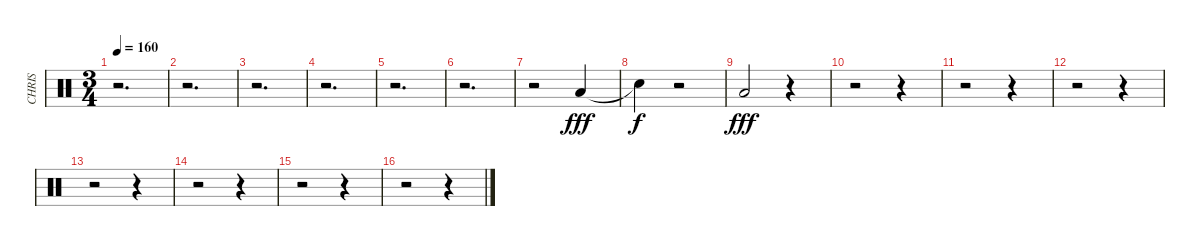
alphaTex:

\track ("CHRIS" "CHRIS") {instrument percussion}
\staff {score}
\articulation defaults
\ts (3 4)
\tempo 160
\clef neutral
\ks c
r.2{d dy fff} |
r.2{d} |
r.2{d} |
r.2{d} |
r.2{d} |
r.2{d} |
r.2 "Low Floor Tom (hit)".4 |
"Snare (hit)"{t}.4{dy f} r.2 |
"Low Floor Tom (hit)".2{dy fff} r.4 |
r.2 r.4 |
r.2 r.4 |
r.2 r.4 |
r.2 r.4 |
r.2 r.4 |
r.2 r.4 |
r.2 r.4
